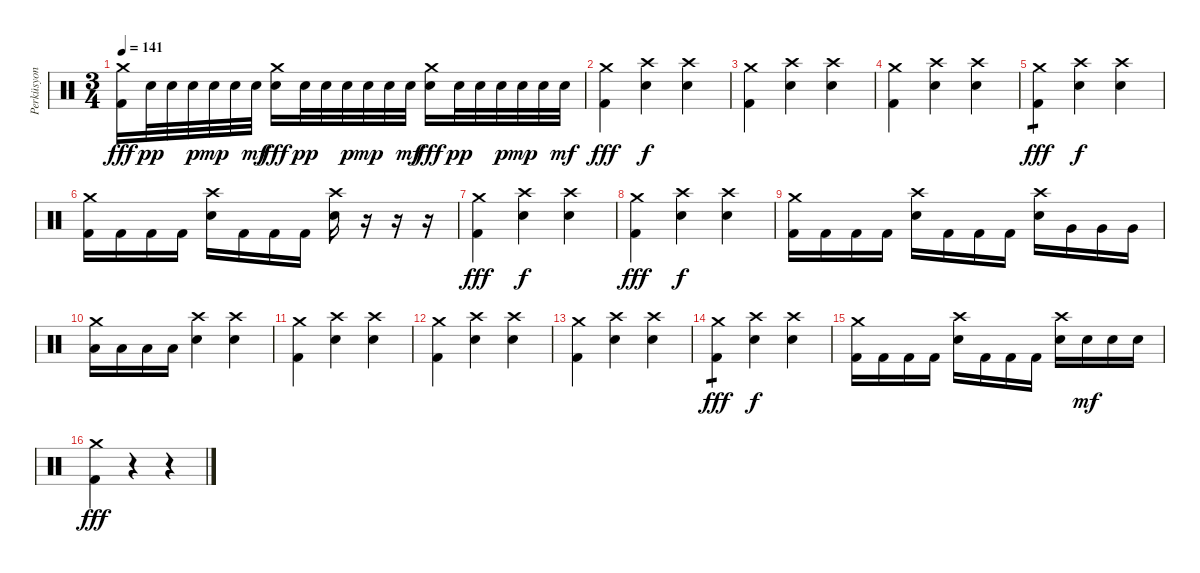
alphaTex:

\track ("Perküsyon" "Perküsyon") {instrument percussion}
\staff {score}
\articulation defaults
\ts (3 4)
\tempo 141
\clef neutral
\ks c
("Crash medium (hit)" "Kick (hit) 2").16{dy fff} "Electric Snare (hit)".32{dy pp} "Electric Snare (hit)".32 "Electric Snare (hit)".32{dy p} "Electric Snare (hit)".32{dy mp} "Electric Snare (hit)".32 "Electric Snare (hit)".32{dy mf} ("Crash medium (hit)" "Electric Snare (hit)").16{dy fff} "Electric Snare (hit)".32{dy pp} "Electric Snare (hit)".32 "Electric Snare (hit)".32{dy p} "Electric Snare (hit)".32{dy mp} "Electric Snare (hit)".32 "Electric Snare (hit)".32{dy mf} ("Crash medium (hit)" "Electric Snare (hit)").16{dy fff} "Electric Snare (hit)".32{dy pp} "Electric Snare (hit)".32 "Electric Snare (hit)".32{dy p} "Electric Snare (hit)".32{dy mp} "Electric Snare (hit)".32 "Electric Snare (hit)".32{dy mf} |
("Crash medium (hit)" "Kick (hit) 2").4{dy fff} ("Crash high (hit)" "Electric Snare (hit)").4{dy f} ("Crash high (hit)" "Electric Snare (hit)").4 |
("Crash medium (hit)" "Kick (hit) 2").4 ("Crash high (hit)" "Electric Snare (hit)").4 ("Crash high (hit)" "Electric Snare (hit)").4 |
("Crash medium (hit)" "Kick (hit) 2").4 ("Crash high (hit)" "Electric Snare (hit)").4 ("Crash high (hit)" "Electric Snare (hit)").4 |
("Crash medium (hit)" "Kick (hit) 2").4{tp 1 dy fff} ("Crash high (hit)" "Electric Snare (hit)").4{dy f} ("Crash high (hit)" "Electric Snare (hit)").4 |
("Crash medium (hit)" "Kick (hit) 2").16 "Kick (hit) 2".16 "Kick (hit) 2".16 "Kick (hit) 2".16 ("Crash high (hit)" "Electric Snare (hit)").16 "Kick (hit) 2".16 "Kick (hit) 2".16 "Kick (hit) 2".16 ("Crash high (hit)" "Electric Snare (hit)").16 r.16 r.16 r.16 |
("Crash medium (hit)" "Kick (hit) 2").4{dy fff} ("Crash high (hit)" "Electric Snare (hit)").4{dy f} ("Crash high (hit)" "Electric Snare (hit)").4 |
("Crash medium (hit)" "Kick (hit) 2").4{dy fff} ("Crash high (hit)" "Electric Snare (hit)").4{dy f} ("Crash high (hit)" "Electric Snare (hit)").4 |
("Crash medium (hit)" "Kick (hit) 2").16 "Kick (hit) 2".16 "Kick (hit) 2".16 "Kick (hit) 2".16 ("Crash high (hit)" "Electric Snare (hit)").16 "Kick (hit) 2".16 "Kick (hit) 2".16 "Kick (hit) 2".16 ("Crash high (hit)" "Electric Snare (hit)").16 "Very Low Tom (hit)".16 "Very Low Tom (hit)".16 "Very Low Tom (hit)".16 |
("Crash medium (hit)" "Low Floor Tom (hit)").16 "Low Floor Tom (hit)".16 "Low Floor Tom (hit)".16 "Low Floor Tom (hit)".16 ("Crash high (hit)" "Electric Snare (hit)").4 ("Crash high (hit)" "Electric Snare (hit)").4 |
("Crash medium (hit)" "Kick (hit) 2").4 ("Crash high (hit)" "Electric Snare (hit)").4 ("Crash high (hit)" "Electric Snare (hit)").4 |
("Crash medium (hit)" "Kick (hit) 2").4 ("Crash high (hit)" "Electric Snare (hit)").4 ("Crash high (hit)" "Electric Snare (hit)").4 |
("Crash medium (hit)" "Kick (hit) 2").4 ("Crash high (hit)" "Electric Snare (hit)").4 ("Crash high (hit)" "Electric Snare (hit)").4 |
("Crash medium (hit)" "Kick (hit) 2").4{tp 1 dy fff} ("Crash high (hit)" "Electric Snare (hit)").4{dy f} ("Crash high (hit)" "Electric Snare (hit)").4 |
("Crash medium (hit)" "Kick (hit) 2").16 "Kick (hit) 2".16 "Kick (hit) 2".16 "Kick (hit) 2".16 ("Crash high (hit)" "Electric Snare (hit)").16 "Kick (hit) 2".16 "Kick (hit) 2".16 "Kick (hit) 2".16 ("Crash high (hit)" "Electric Snare (hit)").16 "Electric Snare (hit)".16{dy mf} "Electric Snare (hit)".16 "Electric Snare (hit)".16 |
("Crash medium (hit)" "Kick (hit) 2").4{dy fff} r.4 r.4
